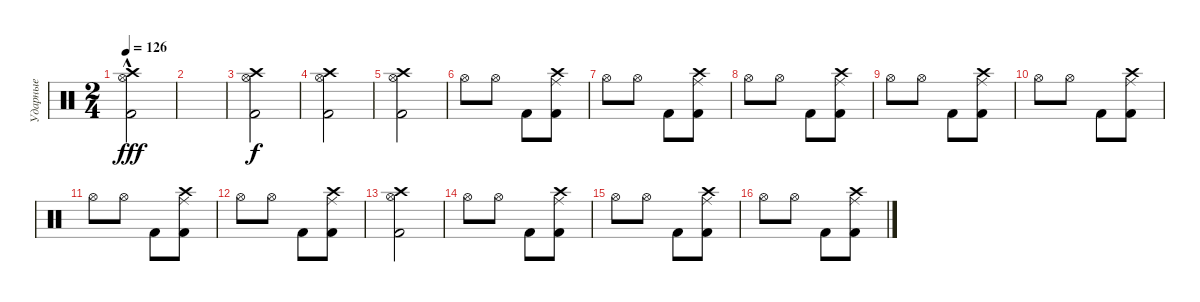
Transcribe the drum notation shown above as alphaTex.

\track ("Ударные" "Ударные") {instrument percussion}
\staff {score}
\articulation defaults
\ts (2 4)
\tempo 126
\clef neutral
\ks c
("Crash high (hit)" "Kick (hit) 2"{hac} "Hi-Hat (open)").2{dy fff} |
|
("Crash high (hit)" "Kick (hit) 2" "Hi-Hat (open)").2{dy f} |
("Crash high (hit)" "Kick (hit) 2" "Hi-Hat (open)").2 |
("Crash high (hit)" "Kick (hit) 2" "Hi-Hat (open)").2 |
"Hi-Hat (open)".8 "Hi-Hat (open)".8 "Kick (hit) 2".8 ("Crash high (hit)" "Kick (hit) 2" "Ride (middle)").8 |
"Hi-Hat (open)".8 "Hi-Hat (open)".8 "Kick (hit) 2".8 ("Crash high (hit)" "Kick (hit) 2" "Ride (middle)").8 |
"Hi-Hat (open)".8 "Hi-Hat (open)".8 "Kick (hit) 2".8 ("Crash high (hit)" "Kick (hit) 2" "Ride (middle)").8 |
"Hi-Hat (open)".8 "Hi-Hat (open)".8 "Kick (hit) 2".8 ("Crash high (hit)" "Kick (hit) 2" "Ride (middle)").8 |
"Hi-Hat (open)".8 "Hi-Hat (open)".8 "Kick (hit) 2".8 ("Crash high (hit)" "Kick (hit) 2" "Ride (middle)").8 |
"Hi-Hat (open)".8 "Hi-Hat (open)".8 "Kick (hit) 2".8 ("Crash high (hit)" "Kick (hit) 2" "Ride (middle)").8 |
"Hi-Hat (open)".8 "Hi-Hat (open)".8 "Kick (hit) 2".8 ("Crash high (hit)" "Kick (hit) 2" "Ride (middle)").8 |
("Crash high (hit)" "Kick (hit) 2" "Hi-Hat (open)").2 |
"Hi-Hat (open)".8 "Hi-Hat (open)".8 "Kick (hit) 2".8 ("Crash high (hit)" "Kick (hit) 2" "Ride (middle)").8 |
"Hi-Hat (open)".8 "Hi-Hat (open)".8 "Kick (hit) 2".8 ("Crash high (hit)" "Kick (hit) 2" "Ride (middle)").8 |
"Hi-Hat (open)".8 "Hi-Hat (open)".8 "Kick (hit) 2".8 ("Crash high (hit)" "Kick (hit) 2" "Ride (middle)").8
